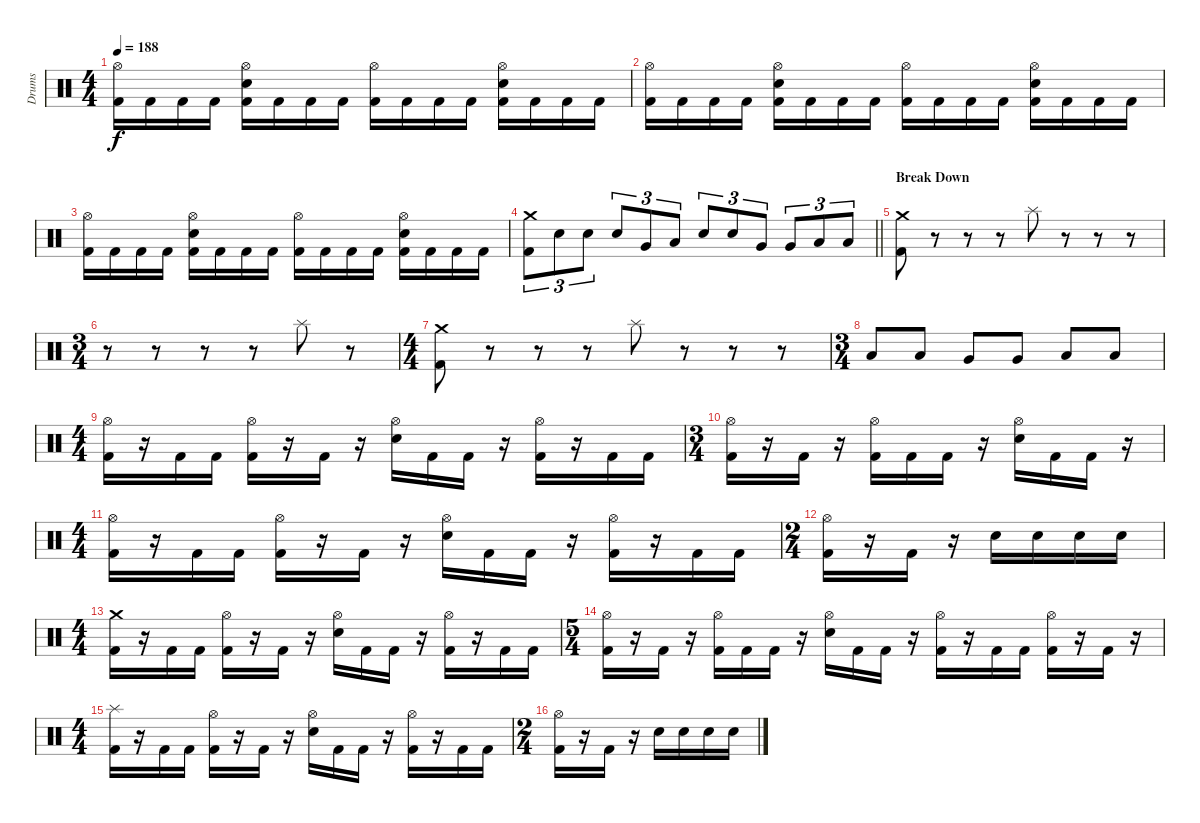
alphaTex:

\track ("Drums" "Drums") {instrument percussion}
\staff {score}
\articulation defaults
\ts (4 4)
\tempo 188
\clef neutral
\ks c
("Hi-Hat (open)" "Kick (hit) 2").16{dy f} "Kick (hit) 2".16 "Kick (hit) 2".16 "Kick (hit) 2".16 ("Hi-Hat (open)" "Snare (hit) 2" "Kick (hit) 2").16 "Kick (hit) 2".16 "Kick (hit) 2".16 "Kick (hit) 2".16 ("Hi-Hat (open)" "Kick (hit) 2").16 "Kick (hit) 2".16 "Kick (hit) 2".16 "Kick (hit) 2".16 ("Hi-Hat (open)" "Snare (hit) 2" "Kick (hit) 2").16 "Kick (hit) 2".16 "Kick (hit) 2".16 "Kick (hit) 2".16 |
("Hi-Hat (open)" "Kick (hit) 2").16 "Kick (hit) 2".16 "Kick (hit) 2".16 "Kick (hit) 2".16 ("Hi-Hat (open)" "Snare (hit) 2" "Kick (hit) 2").16 "Kick (hit) 2".16 "Kick (hit) 2".16 "Kick (hit) 2".16 ("Hi-Hat (open)" "Kick (hit) 2").16 "Kick (hit) 2".16 "Kick (hit) 2".16 "Kick (hit) 2".16 ("Hi-Hat (open)" "Snare (hit) 2" "Kick (hit) 2").16 "Kick (hit) 2".16 "Kick (hit) 2".16 "Kick (hit) 2".16 |
("Hi-Hat (open)" "Kick (hit) 2").16 "Kick (hit) 2".16 "Kick (hit) 2".16 "Kick (hit) 2".16 ("Hi-Hat (open)" "Snare (hit) 2" "Kick (hit) 2").16 "Kick (hit) 2".16 "Kick (hit) 2".16 "Kick (hit) 2".16 ("Hi-Hat (open)" "Kick (hit) 2").16 "Kick (hit) 2".16 "Kick (hit) 2".16 "Kick (hit) 2".16 ("Hi-Hat (open)" "Snare (hit) 2" "Kick (hit) 2").16 "Kick (hit) 2".16 "Kick (hit) 2".16 "Kick (hit) 2".16 |
\barLineRight lightlight
("Crash medium (hit)" "Kick (hit) 2").8{tu (3 2)} "Snare (hit) 2".8{tu (3 2)} "Snare (hit) 2".8{tu (3 2)} "Snare (hit) 2".8{tu (3 2)} "Very Low Tom (hit)".8{tu (3 2)} "Low Floor Tom (hit)".8{tu (3 2)} "Snare (hit) 2".8{tu (3 2)} "Snare (hit) 2".8{tu (3 2)} "Very Low Tom (hit)".8{tu (3 2)} "Very Low Tom (hit)".8{tu (3 2)} "Low Floor Tom (hit)".8{tu (3 2)} "Low Floor Tom (hit)".8{tu (3 2)} |
\section ("" "Break Down")
("Crash medium (hit)" "Kick (hit) 2").8 r.8 r.8 r.8 "Splash (hit)".8 r.8 r.8 r.8 |
\ts (3 4)
r.8 r.8 r.8 r.8 "Splash (hit)".8 r.8 |
\ts (4 4)
("Crash medium (hit)" "Kick (hit) 2").8 r.8 r.8 r.8 "Splash (hit)".8 r.8 r.8 r.8 |
\ts (3 4)
"Low Tom (hit)".8 "Low Tom (hit)".8 "Very Low Tom (hit)".8 "Very Low Tom (hit)".8 "Low Floor Tom (hit)".8 "Low Floor Tom (hit)".8 |
\ts (4 4)
("Hi-Hat (open)" "Kick (hit) 2").16 r.16 "Kick (hit) 2".16 "Kick (hit) 2".16 ("Hi-Hat (open)" "Kick (hit) 2").16 r.16 "Kick (hit) 2".16 r.16 ("Hi-Hat (open)" "Snare (hit) 2").16 "Kick (hit) 2".16 "Kick (hit) 2".16 r.16 ("Hi-Hat (open)" "Kick (hit) 2").16 r.16 "Kick (hit) 2".16 "Kick (hit) 2".16 |
\ts (3 4)
("Hi-Hat (open)" "Kick (hit) 2").16 r.16 "Kick (hit) 2".16 r.16 ("Hi-Hat (open)" "Kick (hit) 2").16 "Kick (hit) 2".16 "Kick (hit) 2".16 r.16 ("Hi-Hat (open)" "Snare (hit) 2").16 "Kick (hit) 2".16 "Kick (hit) 2".16 r.16 |
\ts (4 4)
("Hi-Hat (open)" "Kick (hit) 2").16 r.16 "Kick (hit) 2".16 "Kick (hit) 2".16 ("Hi-Hat (open)" "Kick (hit) 2").16 r.16 "Kick (hit) 2".16 r.16 ("Hi-Hat (open)" "Snare (hit) 2").16 "Kick (hit) 2".16 "Kick (hit) 2".16 r.16 ("Hi-Hat (open)" "Kick (hit) 2").16 r.16 "Kick (hit) 2".16 "Kick (hit) 2".16 |
\ts (2 4)
("Hi-Hat (open)" "Kick (hit) 2").16 r.16 "Kick (hit) 2".16 r.16 "Snare (hit) 2".16 "Snare (hit) 2".16 "Snare (hit) 2".16 "Snare (hit) 2".16 |
\ts (4 4)
("Crash medium (hit)" "Kick (hit) 2").16 r.16 "Kick (hit) 2".16 "Kick (hit) 2".16 ("Hi-Hat (open)" "Kick (hit) 2").16 r.16 "Kick (hit) 2".16 r.16 ("Hi-Hat (open)" "Snare (hit) 2").16 "Kick (hit) 2".16 "Kick (hit) 2".16 r.16 ("Hi-Hat (open)" "Kick (hit) 2").16 r.16 "Kick (hit) 2".16 "Kick (hit) 2".16 |
\ts (5 4)
("Hi-Hat (open)" "Kick (hit) 2").16 r.16 "Kick (hit) 2".16 r.16 ("Hi-Hat (open)" "Kick (hit) 2").16 "Kick (hit) 2".16 "Kick (hit) 2".16 r.16 ("Hi-Hat (open)" "Snare (hit) 2").16 "Kick (hit) 2".16 "Kick (hit) 2".16 r.16 ("Hi-Hat (open)" "Kick (hit) 2").16 r.16 "Kick (hit) 2".16 "Kick (hit) 2".16 ("Hi-Hat (open)" "Kick (hit) 2").16 r.16 "Kick (hit) 2".16 r.16 |
\ts (4 4)
("Splash (hit)" "Kick (hit) 2").16 r.16 "Kick (hit) 2".16 "Kick (hit) 2".16 ("Hi-Hat (open)" "Kick (hit) 2").16 r.16 "Kick (hit) 2".16 r.16 ("Hi-Hat (open)" "Snare (hit) 2").16 "Kick (hit) 2".16 "Kick (hit) 2".16 r.16 ("Hi-Hat (open)" "Kick (hit) 2").16 r.16 "Kick (hit) 2".16 "Kick (hit) 2".16 |
\ts (2 4)
("Hi-Hat (open)" "Kick (hit) 2").16 r.16 "Kick (hit) 2".16 r.16 "Snare (hit) 2".16 "Snare (hit) 2".16 "Snare (hit) 2".16 "Snare (hit) 2".16
